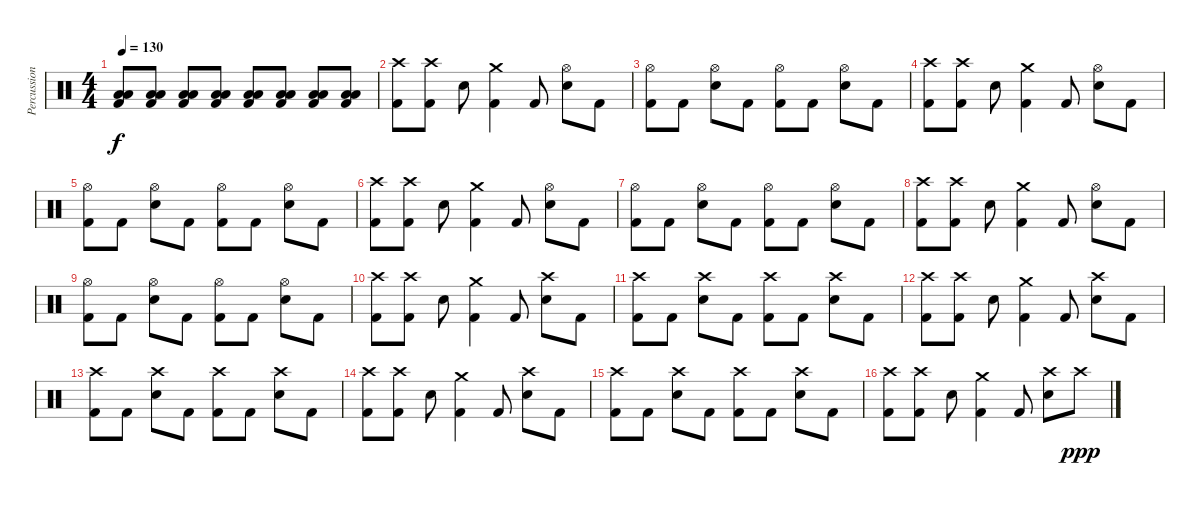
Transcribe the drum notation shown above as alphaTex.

\track ("Percussion" "Percussion") {instrument percussion}
\staff {score}
\articulation defaults
\ts (4 4)
\tempo 130
\clef neutral
\ks c
("Low Tom (hit)" "Low Floor Tom (hit)" "Kick (hit) 2").8{dy f} ("Low Tom (hit)" "Low Floor Tom (hit)" "Kick (hit) 2").8 ("Low Tom (hit)" "Low Floor Tom (hit)" "Kick (hit) 2").8 ("Low Tom (hit)" "Low Floor Tom (hit)" "Kick (hit) 2").8 ("Low Tom (hit)" "Low Floor Tom (hit)" "Kick (hit) 2").8 ("Low Tom (hit)" "Low Floor Tom (hit)" "Kick (hit) 2").8 ("Low Tom (hit)" "Low Floor Tom (hit)" "Kick (hit) 2").8 ("Low Tom (hit)" "Low Floor Tom (hit)" "Kick (hit) 2").8 |
("Crash high (hit)" "Kick (hit) 2").8 ("Crash high (hit)" "Kick (hit) 2").8 "Electric Snare (hit)".8 ("Crash medium (hit)" "Kick (hit) 2").4 "Kick (hit) 2".8 ("Hi-Hat (open)" "Electric Snare (hit)").8 "Kick (hit) 2".8 |
("Hi-Hat (open)" "Kick (hit) 2").8 "Kick (hit) 2".8 ("Hi-Hat (open)" "Electric Snare (hit)").8 "Kick (hit) 2".8 ("Hi-Hat (open)" "Kick (hit) 2").8 "Kick (hit) 2".8 ("Hi-Hat (open)" "Electric Snare (hit)").8 "Kick (hit) 2".8 |
("Crash high (hit)" "Kick (hit) 2").8 ("Crash high (hit)" "Kick (hit) 2").8 "Electric Snare (hit)".8 ("Crash medium (hit)" "Kick (hit) 2").4 "Kick (hit) 2".8 ("Hi-Hat (open)" "Electric Snare (hit)").8 "Kick (hit) 2".8 |
("Hi-Hat (open)" "Kick (hit) 2").8 "Kick (hit) 2".8 ("Hi-Hat (open)" "Electric Snare (hit)").8 "Kick (hit) 2".8 ("Hi-Hat (open)" "Kick (hit) 2").8 "Kick (hit) 2".8 ("Hi-Hat (open)" "Electric Snare (hit)").8 "Kick (hit) 2".8 |
("Crash high (hit)" "Kick (hit) 2").8 ("Crash high (hit)" "Kick (hit) 2").8 "Electric Snare (hit)".8 ("Crash medium (hit)" "Kick (hit) 2").4 "Kick (hit) 2".8 ("Hi-Hat (open)" "Electric Snare (hit)").8 "Kick (hit) 2".8 |
("Hi-Hat (open)" "Kick (hit) 2").8 "Kick (hit) 2".8 ("Hi-Hat (open)" "Electric Snare (hit)").8 "Kick (hit) 2".8 ("Hi-Hat (open)" "Kick (hit) 2").8 "Kick (hit) 2".8 ("Hi-Hat (open)" "Electric Snare (hit)").8 "Kick (hit) 2".8 |
("Crash high (hit)" "Kick (hit) 2").8 ("Crash high (hit)" "Kick (hit) 2").8 "Electric Snare (hit)".8 ("Crash medium (hit)" "Kick (hit) 2").4 "Kick (hit) 2".8 ("Hi-Hat (open)" "Electric Snare (hit)").8 "Kick (hit) 2".8 |
("Hi-Hat (open)" "Kick (hit) 2").8 "Kick (hit) 2".8 ("Hi-Hat (open)" "Electric Snare (hit)").8 "Kick (hit) 2".8 ("Hi-Hat (open)" "Kick (hit) 2").8 "Kick (hit) 2".8 ("Hi-Hat (open)" "Electric Snare (hit)").8 "Kick (hit) 2".8 |
("Crash high (hit)" "Kick (hit) 2").8 ("Crash high (hit)" "Kick (hit) 2").8 "Electric Snare (hit)".8 ("Crash medium (hit)" "Kick (hit) 2").4 "Kick (hit) 2".8 ("Crash high (hit)" "Electric Snare (hit)").8 "Kick (hit) 2".8 |
("Crash high (hit)" "Kick (hit) 2").8 "Kick (hit) 2".8 ("Crash high (hit)" "Electric Snare (hit)").8 "Kick (hit) 2".8 ("Crash high (hit)" "Kick (hit) 2").8 "Kick (hit) 2".8 ("Crash high (hit)" "Electric Snare (hit)").8 "Kick (hit) 2".8 |
("Crash high (hit)" "Kick (hit) 2").8 ("Crash high (hit)" "Kick (hit) 2").8 "Electric Snare (hit)".8 ("Crash medium (hit)" "Kick (hit) 2").4 "Kick (hit) 2".8 ("Crash high (hit)" "Electric Snare (hit)").8 "Kick (hit) 2".8 |
("Crash high (hit)" "Kick (hit) 2").8 "Kick (hit) 2".8 ("Crash high (hit)" "Electric Snare (hit)").8 "Kick (hit) 2".8 ("Crash high (hit)" "Kick (hit) 2").8 "Kick (hit) 2".8 ("Crash high (hit)" "Electric Snare (hit)").8 "Kick (hit) 2".8 |
("Crash high (hit)" "Kick (hit) 2").8 ("Crash high (hit)" "Kick (hit) 2").8 "Electric Snare (hit)".8 ("Crash medium (hit)" "Kick (hit) 2").4 "Kick (hit) 2".8 ("Crash high (hit)" "Electric Snare (hit)").8 "Kick (hit) 2".8 |
("Crash high (hit)" "Kick (hit) 2").8 "Kick (hit) 2".8 ("Crash high (hit)" "Electric Snare (hit)").8 "Kick (hit) 2".8 ("Crash high (hit)" "Kick (hit) 2").8 "Kick (hit) 2".8 ("Crash high (hit)" "Electric Snare (hit)").8 "Kick (hit) 2".8 |
("Crash high (hit)" "Kick (hit) 2").8 ("Crash high (hit)" "Kick (hit) 2").8 "Electric Snare (hit)".8 ("Crash medium (hit)" "Kick (hit) 2").4 "Kick (hit) 2".8 ("Crash high (hit)" "Electric Snare (hit)").8 "Crash high (hit)".8{dy ppp}
